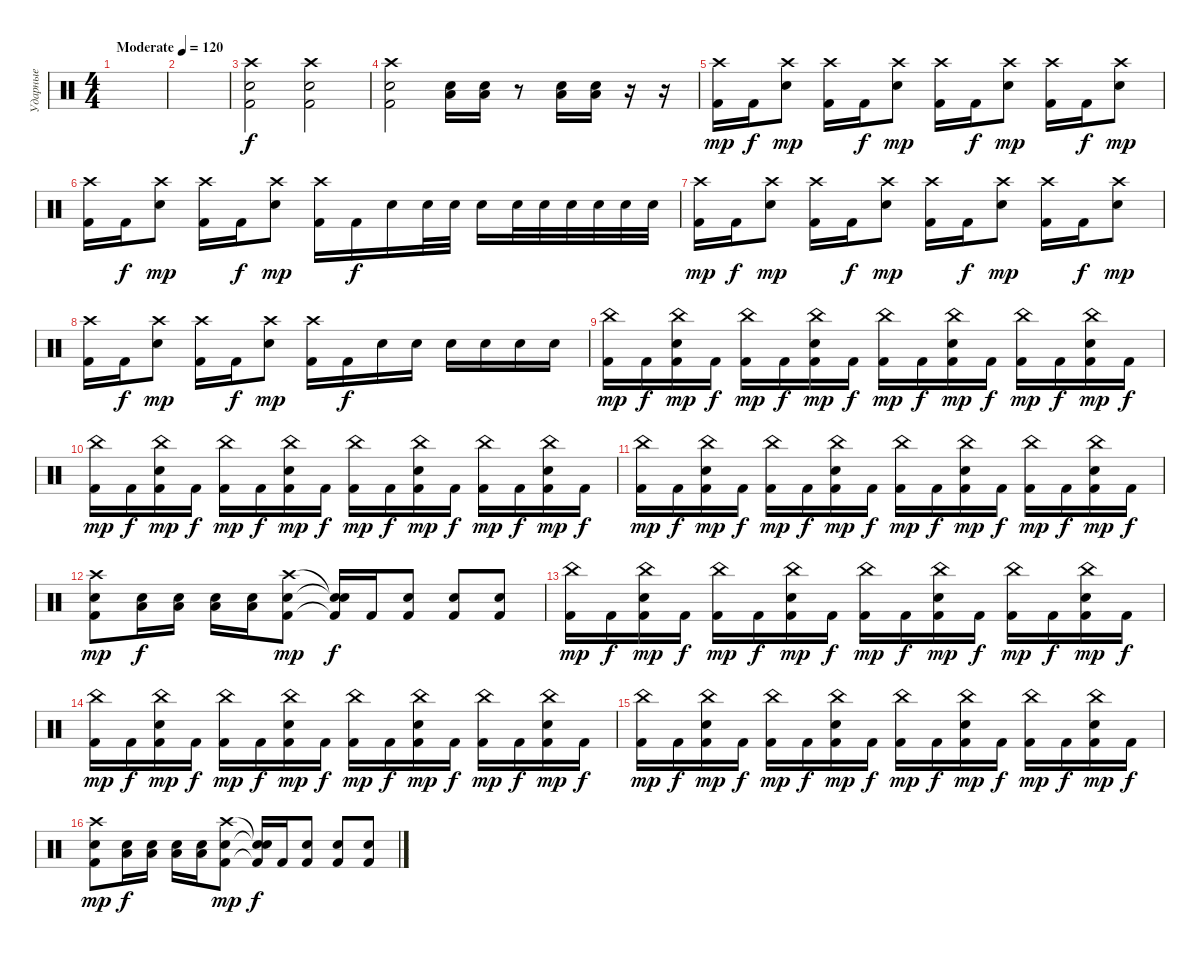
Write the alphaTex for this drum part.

\track ("Ударные" "Ударные") {instrument percussion}
\staff {score}
\articulation defaults
\ts (4 4)
\tempo (120 "Moderate")
\clef neutral
\ks c
|
|
("Crash high (hit)" "Electric Snare (hit)" "Kick (hit) 2").2 ("Crash high (hit)" "Electric Snare (hit)" "Kick (hit) 2").2 |
("Crash high (hit)" "Electric Snare (hit)" "Kick (hit) 2").2 ("Low Floor Tom (hit)" "Electric Snare (hit)").16 ("Low Floor Tom (hit)" "Electric Snare (hit)").16 r.8 ("Low Floor Tom (hit)" "Electric Snare (hit)").16 ("Low Floor Tom (hit)" "Electric Snare (hit)").16 r.16 r.16 |
("Crash high (hit)" "Kick (hit) 2").16{dy mp} "Kick (hit) 2".16{dy f} ("Crash high (hit)" "Electric Snare (hit)").8{dy mp} ("Crash high (hit)" "Kick (hit) 2").16 "Kick (hit) 2".16{dy f} ("Crash high (hit)" "Electric Snare (hit)").8{dy mp} ("Crash high (hit)" "Kick (hit) 2").16 "Kick (hit) 2".16{dy f} ("Crash high (hit)" "Electric Snare (hit)").8{dy mp} ("Crash high (hit)" "Kick (hit) 2").16 "Kick (hit) 2".16{dy f} ("Crash high (hit)" "Electric Snare (hit)").8{dy mp} |
("Crash high (hit)" "Kick (hit) 2").16 "Kick (hit) 2".16{dy f} ("Crash high (hit)" "Electric Snare (hit)").8{dy mp} ("Crash high (hit)" "Kick (hit) 2").16 "Kick (hit) 2".16{dy f} ("Crash high (hit)" "Electric Snare (hit)").8{dy mp} ("Crash high (hit)" "Kick (hit) 2").16 "Kick (hit) 2".16{dy f} "Electric Snare (hit)".16 "Electric Snare (hit)".32 "Electric Snare (hit)".32 "Electric Snare (hit)".16 "Electric Snare (hit)".32 "Electric Snare (hit)".32 "Electric Snare (hit)".32 "Electric Snare (hit)".32 "Electric Snare (hit)".32 "Electric Snare (hit)".32 |
("Crash high (hit)" "Kick (hit) 2").16{dy mp} "Kick (hit) 2".16{dy f} ("Crash high (hit)" "Electric Snare (hit)").8{dy mp} ("Crash high (hit)" "Kick (hit) 2").16 "Kick (hit) 2".16{dy f} ("Crash high (hit)" "Electric Snare (hit)").8{dy mp} ("Crash high (hit)" "Kick (hit) 2").16 "Kick (hit) 2".16{dy f} ("Crash high (hit)" "Electric Snare (hit)").8{dy mp} ("Crash high (hit)" "Kick (hit) 2").16 "Kick (hit) 2".16{dy f} ("Crash high (hit)" "Electric Snare (hit)").8{dy mp} |
("Crash high (hit)" "Kick (hit) 2").16 "Kick (hit) 2".16{dy f} ("Crash high (hit)" "Electric Snare (hit)").8{dy mp} ("Crash high (hit)" "Kick (hit) 2").16 "Kick (hit) 2".16{dy f} ("Crash high (hit)" "Electric Snare (hit)").8{dy mp} ("Crash high (hit)" "Kick (hit) 2").16 "Kick (hit) 2".16{dy f} "Electric Snare (hit)".16 "Electric Snare (hit)".16 "Electric Snare (hit)".16 "Electric Snare (hit)".16 "Electric Snare (hit)".16 "Electric Snare (hit)".16 |
("China (hit)" "Kick (hit) 2").16{dy mp} "Kick (hit) 2".16{dy f} ("China (hit)" "Electric Snare (hit)" "Kick (hit) 2").16{dy mp} "Kick (hit) 2".16{dy f} ("China (hit)" "Kick (hit) 2").16{dy mp} "Kick (hit) 2".16{dy f} ("China (hit)" "Electric Snare (hit)" "Kick (hit) 2").16{dy mp} "Kick (hit) 2".16{dy f} ("China (hit)" "Kick (hit) 2").16{dy mp} "Kick (hit) 2".16{dy f} ("China (hit)" "Electric Snare (hit)" "Kick (hit) 2").16{dy mp} "Kick (hit) 2".16{dy f} ("China (hit)" "Kick (hit) 2").16{dy mp} "Kick (hit) 2".16{dy f} ("China (hit)" "Electric Snare (hit)" "Kick (hit) 2").16{dy mp} "Kick (hit) 2".16{dy f} |
("China (hit)" "Kick (hit) 2").16{dy mp} "Kick (hit) 2".16{dy f} ("China (hit)" "Electric Snare (hit)" "Kick (hit) 2").16{dy mp} "Kick (hit) 2".16{dy f} ("China (hit)" "Kick (hit) 2").16{dy mp} "Kick (hit) 2".16{dy f} ("China (hit)" "Electric Snare (hit)" "Kick (hit) 2").16{dy mp} "Kick (hit) 2".16{dy f} ("China (hit)" "Kick (hit) 2").16{dy mp} "Kick (hit) 2".16{dy f} ("China (hit)" "Electric Snare (hit)" "Kick (hit) 2").16{dy mp} "Kick (hit) 2".16{dy f} ("China (hit)" "Kick (hit) 2").16{dy mp} "Kick (hit) 2".16{dy f} ("China (hit)" "Electric Snare (hit)" "Kick (hit) 2").16{dy mp} "Kick (hit) 2".16{dy f} |
("China (hit)" "Kick (hit) 2").16{dy mp} "Kick (hit) 2".16{dy f} ("China (hit)" "Electric Snare (hit)" "Kick (hit) 2").16{dy mp} "Kick (hit) 2".16{dy f} ("China (hit)" "Kick (hit) 2").16{dy mp} "Kick (hit) 2".16{dy f} ("China (hit)" "Electric Snare (hit)" "Kick (hit) 2").16{dy mp} "Kick (hit) 2".16{dy f} ("China (hit)" "Kick (hit) 2").16{dy mp} "Kick (hit) 2".16{dy f} ("China (hit)" "Electric Snare (hit)" "Kick (hit) 2").16{dy mp} "Kick (hit) 2".16{dy f} ("China (hit)" "Kick (hit) 2").16{dy mp} "Kick (hit) 2".16{dy f} ("China (hit)" "Electric Snare (hit)" "Kick (hit) 2").16{dy mp} "Kick (hit) 2".16{dy f} |
("Crash high (hit)" "Electric Snare (hit)" "Kick (hit) 2").8{dy mp} ("Low Floor Tom (hit)" "Electric Snare (hit)").16{dy f} ("Low Floor Tom (hit)" "Electric Snare (hit)").16 ("Low Floor Tom (hit)" "Electric Snare (hit)").16 ("Low Floor Tom (hit)" "Electric Snare (hit)").16 ("Crash high (hit)" "Electric Snare (hit)" "Kick (hit) 2").8{dy mp} ("Snare (hit)"{t} "Snare (hit)"{t} "Kick (hit) 2"{t}).16{dy f} "Kick (hit) 2".16 ("Electric Snare (hit)" "Kick (hit) 2").8 ("Electric Snare (hit)" "Kick (hit) 2").8 ("Electric Snare (hit)" "Kick (hit) 2").8 |
("China (hit)" "Kick (hit) 2").16{dy mp} "Kick (hit) 2".16{dy f} ("China (hit)" "Electric Snare (hit)" "Kick (hit) 2").16{dy mp} "Kick (hit) 2".16{dy f} ("China (hit)" "Kick (hit) 2").16{dy mp} "Kick (hit) 2".16{dy f} ("China (hit)" "Electric Snare (hit)" "Kick (hit) 2").16{dy mp} "Kick (hit) 2".16{dy f} ("China (hit)" "Kick (hit) 2").16{dy mp} "Kick (hit) 2".16{dy f} ("China (hit)" "Electric Snare (hit)" "Kick (hit) 2").16{dy mp} "Kick (hit) 2".16{dy f} ("China (hit)" "Kick (hit) 2").16{dy mp} "Kick (hit) 2".16{dy f} ("China (hit)" "Electric Snare (hit)" "Kick (hit) 2").16{dy mp} "Kick (hit) 2".16{dy f} |
("China (hit)" "Kick (hit) 2").16{dy mp} "Kick (hit) 2".16{dy f} ("China (hit)" "Electric Snare (hit)" "Kick (hit) 2").16{dy mp} "Kick (hit) 2".16{dy f} ("China (hit)" "Kick (hit) 2").16{dy mp} "Kick (hit) 2".16{dy f} ("China (hit)" "Electric Snare (hit)" "Kick (hit) 2").16{dy mp} "Kick (hit) 2".16{dy f} ("China (hit)" "Kick (hit) 2").16{dy mp} "Kick (hit) 2".16{dy f} ("China (hit)" "Electric Snare (hit)" "Kick (hit) 2").16{dy mp} "Kick (hit) 2".16{dy f} ("China (hit)" "Kick (hit) 2").16{dy mp} "Kick (hit) 2".16{dy f} ("China (hit)" "Electric Snare (hit)" "Kick (hit) 2").16{dy mp} "Kick (hit) 2".16{dy f} |
("China (hit)" "Kick (hit) 2").16{dy mp} "Kick (hit) 2".16{dy f} ("China (hit)" "Electric Snare (hit)" "Kick (hit) 2").16{dy mp} "Kick (hit) 2".16{dy f} ("China (hit)" "Kick (hit) 2").16{dy mp} "Kick (hit) 2".16{dy f} ("China (hit)" "Electric Snare (hit)" "Kick (hit) 2").16{dy mp} "Kick (hit) 2".16{dy f} ("China (hit)" "Kick (hit) 2").16{dy mp} "Kick (hit) 2".16{dy f} ("China (hit)" "Electric Snare (hit)" "Kick (hit) 2").16{dy mp} "Kick (hit) 2".16{dy f} ("China (hit)" "Kick (hit) 2").16{dy mp} "Kick (hit) 2".16{dy f} ("China (hit)" "Electric Snare (hit)" "Kick (hit) 2").16{dy mp} "Kick (hit) 2".16{dy f} |
("Crash high (hit)" "Electric Snare (hit)" "Kick (hit) 2").8{dy mp} ("Low Floor Tom (hit)" "Electric Snare (hit)").16{dy f} ("Low Floor Tom (hit)" "Electric Snare (hit)").16 ("Low Floor Tom (hit)" "Electric Snare (hit)").16 ("Low Floor Tom (hit)" "Electric Snare (hit)").16 ("Crash high (hit)" "Electric Snare (hit)" "Kick (hit) 2").8{dy mp} ("Snare (hit)"{t} "Snare (hit)"{t} "Kick (hit) 2"{t}).16{dy f} "Kick (hit) 2".16 ("Electric Snare (hit)" "Kick (hit) 2").8 ("Electric Snare (hit)" "Kick (hit) 2").8 ("Electric Snare (hit)" "Kick (hit) 2").8
